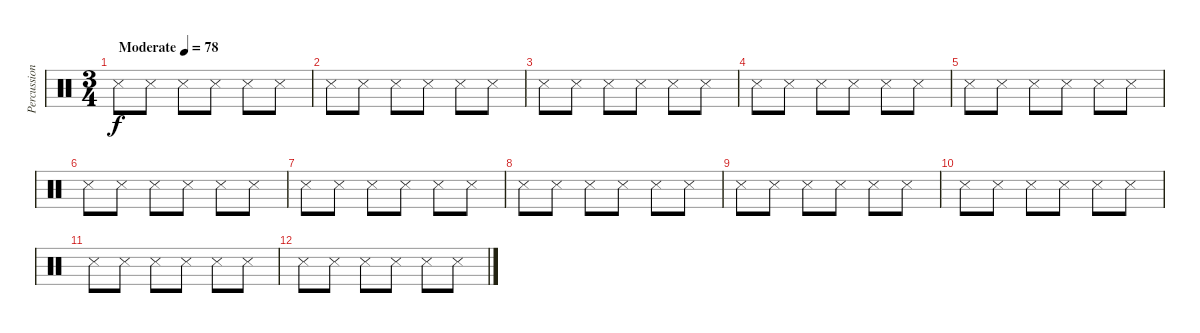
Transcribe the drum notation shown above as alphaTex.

\track ("Percussion" "Percussion") {instrument percussion}
\staff {score}
\articulation defaults
\ts (3 4)
\tempo (78 "Moderate")
\clef neutral
\ks c "Snare (side stick) 3".8{dy f} "Snare (side stick) 3".8 "Snare (side stick) 3".8 "Snare (side stick) 3".8 "Snare (side stick) 3".8 "Snare (side stick) 3".8
|
"Snare (side stick) 3".8 "Snare (side stick) 3".8 "Snare (side stick) 3".8 "Snare (side stick) 3".8 "Snare (side stick) 3".8 "Snare (side stick) 3".8 |
"Snare (side stick) 3".8 "Snare (side stick) 3".8 "Snare (side stick) 3".8 "Snare (side stick) 3".8 "Snare (side stick) 3".8 "Snare (side stick) 3".8 |
"Snare (side stick) 3".8 "Snare (side stick) 3".8 "Snare (side stick) 3".8 "Snare (side stick) 3".8 "Snare (side stick) 3".8 "Snare (side stick) 3".8 |
"Snare (side stick) 3".8 "Snare (side stick) 3".8 "Snare (side stick) 3".8 "Snare (side stick) 3".8 "Snare (side stick) 3".8 "Snare (side stick) 3".8 |
"Snare (side stick) 3".8 "Snare (side stick) 3".8 "Snare (side stick) 3".8 "Snare (side stick) 3".8 "Snare (side stick) 3".8 "Snare (side stick) 3".8 |
"Snare (side stick) 3".8 "Snare (side stick) 3".8 "Snare (side stick) 3".8 "Snare (side stick) 3".8 "Snare (side stick) 3".8 "Snare (side stick) 3".8 |
"Snare (side stick) 3".8 "Snare (side stick) 3".8 "Snare (side stick) 3".8 "Snare (side stick) 3".8 "Snare (side stick) 3".8 "Snare (side stick) 3".8 |
"Snare (side stick) 3".8 "Snare (side stick) 3".8 "Snare (side stick) 3".8 "Snare (side stick) 3".8 "Snare (side stick) 3".8 "Snare (side stick) 3".8 |
"Snare (side stick) 3".8 "Snare (side stick) 3".8 "Snare (side stick) 3".8 "Snare (side stick) 3".8 "Snare (side stick) 3".8 "Snare (side stick) 3".8 |
"Snare (side stick) 3".8 "Snare (side stick) 3".8 "Snare (side stick) 3".8 "Snare (side stick) 3".8 "Snare (side stick) 3".8 "Snare (side stick) 3".8 |
"Snare (side stick) 3".8 "Snare (side stick) 3".8 "Snare (side stick) 3".8 "Snare (side stick) 3".8 "Snare (side stick) 3".8 "Snare (side stick) 3".8
